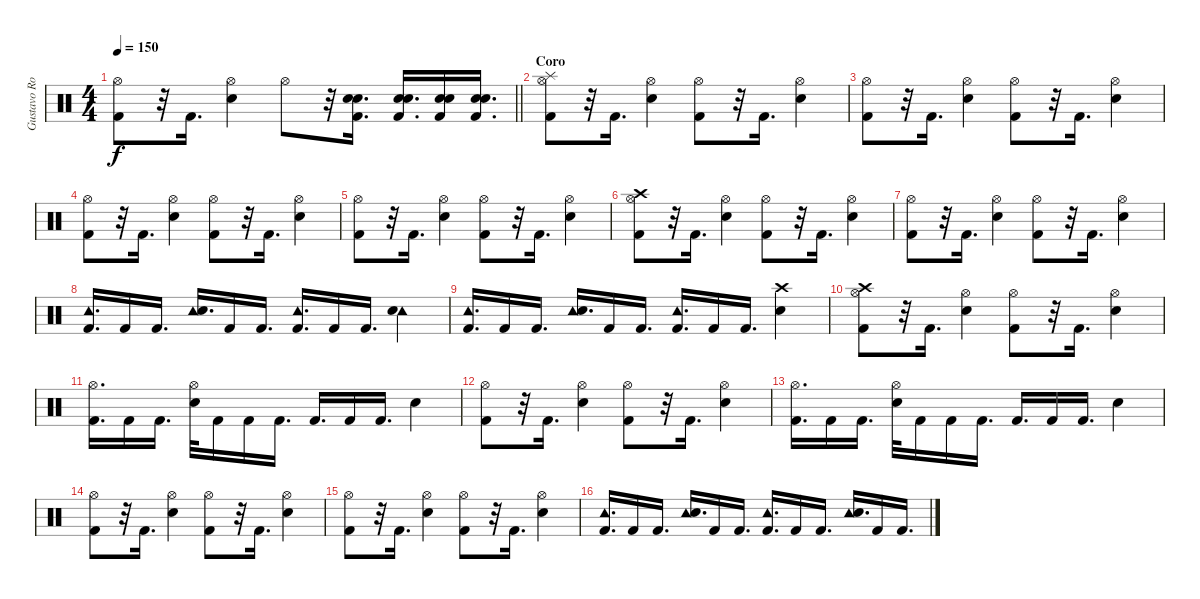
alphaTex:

\track ("Gustavo Rowek" "Gustavo Ro") {instrument percussion}
\staff {score}
\articulation defaults
\ts (4 4)
\tempo 150
\clef neutral
\barLineRight lightlight
\ks c
("Hi-Hat (open)" "Kick (hit) 2").8{dy f} r.32 "Kick (hit) 2".16{d} ("Hi-Hat (open)" "Electric Snare (hit)").4 "Hi-Hat (open)".8 r.32 ("Snare (hit) 2" "Electric Snare (hit)" "Kick (hit) 2").16{d} ("Snare (hit) 2" "Electric Snare (hit)" "Kick (hit) 2").16{d} ("Snare (hit) 2" "Electric Snare (hit)" "Kick (hit) 2").16 ("Snare (hit) 2" "Electric Snare (hit)" "Kick (hit) 2").16{d} |
\section ("" "Coro")
("Splash (hit)" "Hi-Hat (open)" "Kick (hit) 2").8 r.32 "Kick (hit) 2".16{d} ("Hi-Hat (open)" "Electric Snare (hit)").4 ("Hi-Hat (open)" "Kick (hit) 2").8 r.32 "Kick (hit) 2".16{d} ("Hi-Hat (open)" "Electric Snare (hit)").4 |
("Hi-Hat (open)" "Kick (hit) 2").8 r.32 "Kick (hit) 2".16{d} ("Hi-Hat (open)" "Electric Snare (hit)").4 ("Hi-Hat (open)" "Kick (hit) 2").8 r.32 "Kick (hit) 2".16{d} ("Hi-Hat (open)" "Electric Snare (hit)").4 |
("Hi-Hat (open)" "Kick (hit) 2").8 r.32 "Kick (hit) 2".16{d} ("Hi-Hat (open)" "Electric Snare (hit)").4 ("Hi-Hat (open)" "Kick (hit) 2").8 r.32 "Kick (hit) 2".16{d} ("Hi-Hat (open)" "Electric Snare (hit)").4 |
("Hi-Hat (open)" "Kick (hit) 2").8 r.32 "Kick (hit) 2".16{d} ("Hi-Hat (open)" "Electric Snare (hit)").4 ("Hi-Hat (open)" "Kick (hit) 2").8 r.32 "Kick (hit) 2".16{d} ("Hi-Hat (open)" "Electric Snare (hit)").4 |
("Crash high (hit)" "Hi-Hat (open)" "Kick (hit) 2").8 r.32 "Kick (hit) 2".16{d} ("Hi-Hat (open)" "Electric Snare (hit)").4 ("Hi-Hat (open)" "Kick (hit) 2").8 r.32 "Kick (hit) 2".16{d} ("Hi-Hat (open)" "Electric Snare (hit)").4 |
("Hi-Hat (open)" "Kick (hit) 2").8 r.32 "Kick (hit) 2".16{d} ("Hi-Hat (open)" "Electric Snare (hit)").4 ("Hi-Hat (open)" "Kick (hit) 2").8 r.32 "Kick (hit) 2".16{d} ("Hi-Hat (open)" "Electric Snare (hit)").4 |
("Tambourine (hit)" "Kick (hit) 2").16{d} "Kick (hit) 2".16 "Kick (hit) 2".16{d} ("Tambourine (hit)" "Electric Snare (hit)").16{d} "Kick (hit) 2".16 "Kick (hit) 2".16{d} ("Tambourine (hit)" "Kick (hit) 2").16{d} "Kick (hit) 2".16 "Kick (hit) 2".16{d} ("Tambourine (hit)" "Electric Snare (hit)").4 |
("Tambourine (hit)" "Kick (hit) 2").16{d} "Kick (hit) 2".16 "Kick (hit) 2".16{d} ("Tambourine (hit)" "Electric Snare (hit)").16{d} "Kick (hit) 2".16 "Kick (hit) 2".16{d} ("Tambourine (hit)" "Kick (hit) 2").16{d} "Kick (hit) 2".16 "Kick (hit) 2".16{d} ("Crash high (hit)" "Electric Snare (hit)").4 |
("Crash high (hit)" "Hi-Hat (open)" "Kick (hit) 2").8 r.32 "Kick (hit) 2".16{d} ("Hi-Hat (open)" "Electric Snare (hit)").4 ("Hi-Hat (open)" "Kick (hit) 2").8 r.32 "Kick (hit) 2".16{d} ("Hi-Hat (open)" "Electric Snare (hit)").4 |
("Hi-Hat (open)" "Kick (hit) 2").16{d} "Kick (hit) 2".16 "Kick (hit) 2".16{d} ("Hi-Hat (open)" "Electric Snare (hit)").32 "Kick (hit) 2".16 "Kick (hit) 2".16 "Kick (hit) 2".16{d} "Kick (hit) 2".16{d} "Kick (hit) 2".16 "Kick (hit) 2".16{d} "Electric Snare (hit)".4 |
("Hi-Hat (open)" "Kick (hit) 2").8 r.32 "Kick (hit) 2".16{d} ("Hi-Hat (open)" "Electric Snare (hit)").4 ("Hi-Hat (open)" "Kick (hit) 2").8 r.32 "Kick (hit) 2".16{d} ("Hi-Hat (open)" "Electric Snare (hit)").4 |
("Hi-Hat (open)" "Kick (hit) 2").16{d} "Kick (hit) 2".16 "Kick (hit) 2".16{d} ("Hi-Hat (open)" "Electric Snare (hit)").32 "Kick (hit) 2".16 "Kick (hit) 2".16 "Kick (hit) 2".16{d} "Kick (hit) 2".16{d} "Kick (hit) 2".16 "Kick (hit) 2".16{d} "Electric Snare (hit)".4 |
("Hi-Hat (open)" "Kick (hit) 2").8 r.32 "Kick (hit) 2".16{d} ("Hi-Hat (open)" "Electric Snare (hit)").4 ("Hi-Hat (open)" "Kick (hit) 2").8 r.32 "Kick (hit) 2".16{d} ("Hi-Hat (open)" "Electric Snare (hit)").4 |
("Hi-Hat (open)" "Kick (hit) 2").8 r.32 "Kick (hit) 2".16{d} ("Hi-Hat (open)" "Electric Snare (hit)").4 ("Hi-Hat (open)" "Kick (hit) 2").8 r.32 "Kick (hit) 2".16{d} ("Hi-Hat (open)" "Electric Snare (hit)").4 |
("Tambourine (hit)" "Kick (hit) 2").16{d} "Kick (hit) 2".16 "Kick (hit) 2".16{d} ("Tambourine (hit)" "Electric Snare (hit)").16{d} "Kick (hit) 2".16 "Kick (hit) 2".16{d} ("Tambourine (hit)" "Kick (hit) 2").16{d} "Kick (hit) 2".16 "Kick (hit) 2".16{d} ("Tambourine (hit)" "Electric Snare (hit)").16{d} "Kick (hit) 2".16 "Kick (hit) 2".16{d}
